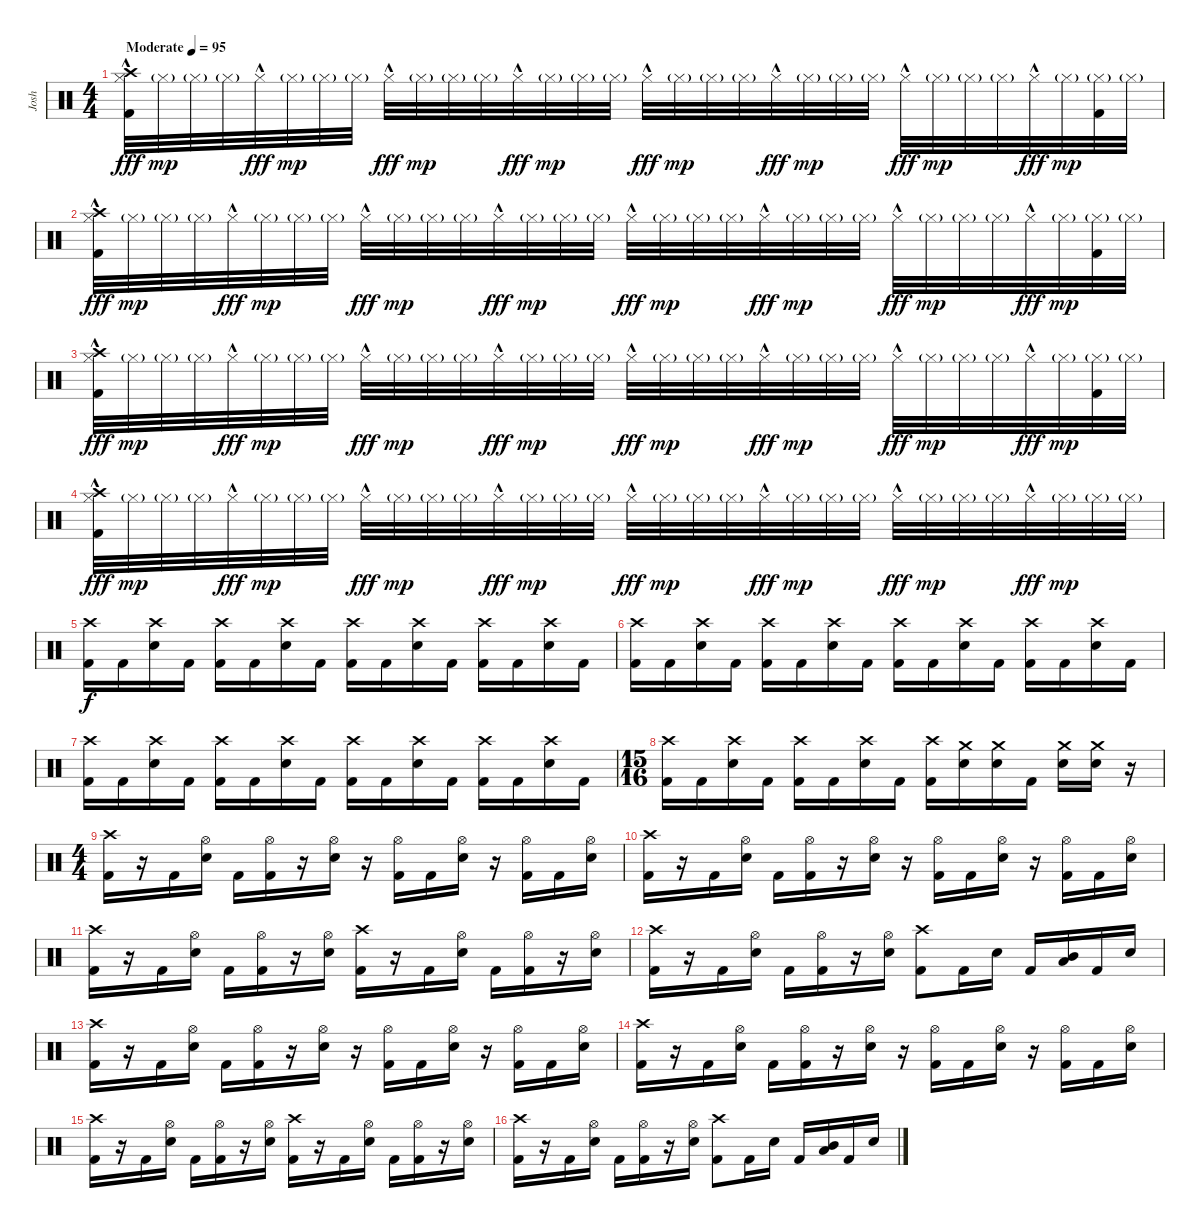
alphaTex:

\track ("Josh" "Josh") {instrument percussion}
\staff {score}
\articulation defaults
\ts (4 4)
\tempo (95 "Moderate")
\clef neutral
\ks c
("Crash high (hit)" "Hi-Hat (closed)"{hac} "Kick (hit) 2").32{dy fff} "Hi-Hat (closed)"{g}.32{dy mp} "Hi-Hat (closed)"{g}.32 "Hi-Hat (closed)"{g}.32 "Hi-Hat (closed)"{hac}.32{dy fff} "Hi-Hat (closed)"{g}.32{dy mp} "Hi-Hat (closed)"{g}.32 "Hi-Hat (closed)"{g}.32 "Hi-Hat (closed)"{hac}.32{dy fff} "Hi-Hat (closed)"{g}.32{dy mp} "Hi-Hat (closed)"{g}.32 "Hi-Hat (closed)"{g}.32 "Hi-Hat (closed)"{hac}.32{dy fff} "Hi-Hat (closed)"{g}.32{dy mp} "Hi-Hat (closed)"{g}.32 "Hi-Hat (closed)"{g}.32 "Hi-Hat (closed)"{hac}.32{dy fff} "Hi-Hat (closed)"{g}.32{dy mp} "Hi-Hat (closed)"{g}.32 "Hi-Hat (closed)"{g}.32 "Hi-Hat (closed)"{hac}.32{dy fff} "Hi-Hat (closed)"{g}.32{dy mp} "Hi-Hat (closed)"{g}.32 "Hi-Hat (closed)"{g}.32 "Hi-Hat (closed)"{hac}.32{dy fff} "Hi-Hat (closed)"{g}.32{dy mp} "Hi-Hat (closed)"{g}.32 "Hi-Hat (closed)"{g}.32 "Hi-Hat (closed)"{hac}.32{dy fff} "Hi-Hat (closed)"{g}.32{dy mp} ("Hi-Hat (closed)"{g} "Kick (hit) 2").32 "Hi-Hat (closed)"{g}.32 |
("Crash high (hit)" "Hi-Hat (closed)"{hac} "Kick (hit) 2").32{dy fff} "Hi-Hat (closed)"{g}.32{dy mp} "Hi-Hat (closed)"{g}.32 "Hi-Hat (closed)"{g}.32 "Hi-Hat (closed)"{hac}.32{dy fff} "Hi-Hat (closed)"{g}.32{dy mp} "Hi-Hat (closed)"{g}.32 "Hi-Hat (closed)"{g}.32 "Hi-Hat (closed)"{hac}.32{dy fff} "Hi-Hat (closed)"{g}.32{dy mp} "Hi-Hat (closed)"{g}.32 "Hi-Hat (closed)"{g}.32 "Hi-Hat (closed)"{hac}.32{dy fff} "Hi-Hat (closed)"{g}.32{dy mp} "Hi-Hat (closed)"{g}.32 "Hi-Hat (closed)"{g}.32 "Hi-Hat (closed)"{hac}.32{dy fff} "Hi-Hat (closed)"{g}.32{dy mp} "Hi-Hat (closed)"{g}.32 "Hi-Hat (closed)"{g}.32 "Hi-Hat (closed)"{hac}.32{dy fff} "Hi-Hat (closed)"{g}.32{dy mp} "Hi-Hat (closed)"{g}.32 "Hi-Hat (closed)"{g}.32 "Hi-Hat (closed)"{hac}.32{dy fff} "Hi-Hat (closed)"{g}.32{dy mp} "Hi-Hat (closed)"{g}.32 "Hi-Hat (closed)"{g}.32 "Hi-Hat (closed)"{hac}.32{dy fff} "Hi-Hat (closed)"{g}.32{dy mp} ("Hi-Hat (closed)"{g} "Kick (hit) 2").32 "Hi-Hat (closed)"{g}.32 |
("Hi-Hat (closed)"{hac} "Crash high (hit)" "Kick (hit) 2").32{dy fff} "Hi-Hat (closed)"{g}.32{dy mp} "Hi-Hat (closed)"{g}.32 "Hi-Hat (closed)"{g}.32 "Hi-Hat (closed)"{hac}.32{dy fff} "Hi-Hat (closed)"{g}.32{dy mp} "Hi-Hat (closed)"{g}.32 "Hi-Hat (closed)"{g}.32 "Hi-Hat (closed)"{hac}.32{dy fff} "Hi-Hat (closed)"{g}.32{dy mp} "Hi-Hat (closed)"{g}.32 "Hi-Hat (closed)"{g}.32 "Hi-Hat (closed)"{hac}.32{dy fff} "Hi-Hat (closed)"{g}.32{dy mp} "Hi-Hat (closed)"{g}.32 "Hi-Hat (closed)"{g}.32 "Hi-Hat (closed)"{hac}.32{dy fff} "Hi-Hat (closed)"{g}.32{dy mp} "Hi-Hat (closed)"{g}.32 "Hi-Hat (closed)"{g}.32 "Hi-Hat (closed)"{hac}.32{dy fff} "Hi-Hat (closed)"{g}.32{dy mp} "Hi-Hat (closed)"{g}.32 "Hi-Hat (closed)"{g}.32 "Hi-Hat (closed)"{hac}.32{dy fff} "Hi-Hat (closed)"{g}.32{dy mp} "Hi-Hat (closed)"{g}.32 "Hi-Hat (closed)"{g}.32 "Hi-Hat (closed)"{hac}.32{dy fff} "Hi-Hat (closed)"{g}.32{dy mp} ("Hi-Hat (closed)"{g} "Kick (hit) 2").32 "Hi-Hat (closed)"{g}.32 |
("Hi-Hat (closed)"{hac} "Crash high (hit)" "Kick (hit) 2").32{dy fff} "Hi-Hat (closed)"{g}.32{dy mp} "Hi-Hat (closed)"{g}.32 "Hi-Hat (closed)"{g}.32 "Hi-Hat (closed)"{hac}.32{dy fff} "Hi-Hat (closed)"{g}.32{dy mp} "Hi-Hat (closed)"{g}.32 "Hi-Hat (closed)"{g}.32 "Hi-Hat (closed)"{hac}.32{dy fff} "Hi-Hat (closed)"{g}.32{dy mp} "Hi-Hat (closed)"{g}.32 "Hi-Hat (closed)"{g}.32 "Hi-Hat (closed)"{hac}.32{dy fff} "Hi-Hat (closed)"{g}.32{dy mp} "Hi-Hat (closed)"{g}.32 "Hi-Hat (closed)"{g}.32 "Hi-Hat (closed)"{hac}.32{dy fff} "Hi-Hat (closed)"{g}.32{dy mp} "Hi-Hat (closed)"{g}.32 "Hi-Hat (closed)"{g}.32 "Hi-Hat (closed)"{hac}.32{dy fff} "Hi-Hat (closed)"{g}.32{dy mp} "Hi-Hat (closed)"{g}.32 "Hi-Hat (closed)"{g}.32 "Hi-Hat (closed)"{hac}.32{dy fff} "Hi-Hat (closed)"{g}.32{dy mp} "Hi-Hat (closed)"{g}.32 "Hi-Hat (closed)"{g}.32 "Hi-Hat (closed)"{hac}.32{dy fff} "Hi-Hat (closed)"{g}.32{dy mp} "Hi-Hat (closed)"{g}.32 "Hi-Hat (closed)"{g}.32 |
("Crash high (hit)" "Kick (hit) 2").16{dy f} "Kick (hit) 2".16 ("Crash high (hit)" "Snare (hit) 2").16 "Kick (hit) 2".16 ("Crash high (hit)" "Kick (hit) 2").16 "Kick (hit) 2".16 ("Crash high (hit)" "Snare (hit) 2").16 "Kick (hit) 2".16 ("Crash high (hit)" "Kick (hit) 2").16 "Kick (hit) 2".16 ("Crash high (hit)" "Snare (hit) 2").16 "Kick (hit) 2".16 ("Crash high (hit)" "Kick (hit) 2").16 "Kick (hit) 2".16 ("Crash high (hit)" "Snare (hit) 2").16 "Kick (hit) 2".16 |
("Crash high (hit)" "Kick (hit) 2").16 "Kick (hit) 2".16 ("Crash high (hit)" "Snare (hit) 2").16 "Kick (hit) 2".16 ("Crash high (hit)" "Kick (hit) 2").16 "Kick (hit) 2".16 ("Crash high (hit)" "Snare (hit) 2").16 "Kick (hit) 2".16 ("Crash high (hit)" "Kick (hit) 2").16 "Kick (hit) 2".16 ("Crash high (hit)" "Snare (hit) 2").16 "Kick (hit) 2".16 ("Crash high (hit)" "Kick (hit) 2").16 "Kick (hit) 2".16 ("Crash high (hit)" "Snare (hit) 2").16 "Kick (hit) 2".16 |
("Crash high (hit)" "Kick (hit) 2").16 "Kick (hit) 2".16 ("Crash high (hit)" "Snare (hit) 2").16 "Kick (hit) 2".16 ("Crash high (hit)" "Kick (hit) 2").16 "Kick (hit) 2".16 ("Crash high (hit)" "Snare (hit) 2").16 "Kick (hit) 2".16 ("Crash high (hit)" "Kick (hit) 2").16 "Kick (hit) 2".16 ("Crash high (hit)" "Snare (hit) 2").16 "Kick (hit) 2".16 ("Crash high (hit)" "Kick (hit) 2").16 "Kick (hit) 2".16 ("Crash high (hit)" "Snare (hit) 2").16 "Kick (hit) 2".16 |
\ts (15 16)
("Crash high (hit)" "Kick (hit) 2").16 "Kick (hit) 2".16 ("Crash high (hit)" "Snare (hit) 2").16 "Kick (hit) 2".16 ("Crash high (hit)" "Kick (hit) 2").16 "Kick (hit) 2".16 ("Crash high (hit)" "Snare (hit) 2").16 "Kick (hit) 2".16 ("Crash high (hit)" "Kick (hit) 2").16 ("Crash medium (hit)" "Snare (hit) 2").16 ("Crash medium (hit)" "Snare (hit) 2").16 "Kick (hit) 2".16 ("Crash medium (hit)" "Snare (hit) 2").16 ("Crash medium (hit)" "Snare (hit) 2").16 r.16 |
\ts (4 4)
("Crash high (hit)" "Kick (hit) 2").16 r.16 "Kick (hit) 2".16 ("Hi-Hat (open)" "Snare (hit) 2").16 "Kick (hit) 2".16 ("Hi-Hat (open)" "Kick (hit) 2").16 r.16 ("Hi-Hat (open)" "Snare (hit) 2").16 r.16 ("Hi-Hat (open)" "Kick (hit) 2").16 "Kick (hit) 2".16 ("Hi-Hat (open)" "Snare (hit) 2").16 r.16 ("Hi-Hat (open)" "Kick (hit) 2").16 "Kick (hit) 2".16 ("Hi-Hat (open)" "Snare (hit) 2").16 |
("Crash high (hit)" "Kick (hit) 2").16 r.16 "Kick (hit) 2".16 ("Hi-Hat (open)" "Snare (hit) 2").16 "Kick (hit) 2".16 ("Hi-Hat (open)" "Kick (hit) 2").16 r.16 ("Hi-Hat (open)" "Snare (hit) 2").16 r.16 ("Hi-Hat (open)" "Kick (hit) 2").16 "Kick (hit) 2".16 ("Hi-Hat (open)" "Snare (hit) 2").16 r.16 ("Hi-Hat (open)" "Kick (hit) 2").16 "Kick (hit) 2".16 ("Hi-Hat (open)" "Snare (hit) 2").16 |
("Crash high (hit)" "Kick (hit) 2").16 r.16 "Kick (hit) 2".16 ("Hi-Hat (open)" "Snare (hit) 2").16 "Kick (hit) 2".16 ("Hi-Hat (open)" "Kick (hit) 2").16 r.16 ("Hi-Hat (open)" "Snare (hit) 2").16 ("Crash high (hit)" "Kick (hit) 2").16 r.16 "Kick (hit) 2".16 ("Hi-Hat (open)" "Snare (hit) 2").16 "Kick (hit) 2".16 ("Hi-Hat (open)" "Kick (hit) 2").16 r.16 ("Hi-Hat (open)" "Snare (hit) 2").16 |
("Crash high (hit)" "Kick (hit) 2").16 r.16 "Kick (hit) 2".16 ("Hi-Hat (open)" "Snare (hit) 2").16 "Kick (hit) 2".16 ("Hi-Hat (open)" "Kick (hit) 2").16 r.16 ("Hi-Hat (open)" "Snare (hit) 2").16 ("Crash high (hit)" "Kick (hit) 2").8 "Kick (hit) 2".16 "Snare (hit) 2".16 "Kick (hit) 2".16 ("Mid Tom (hit)" "Low Tom (hit)").16 "Kick (hit) 2".16 "Snare (hit) 2".16 |
("Crash high (hit)" "Kick (hit) 2").16 r.16 "Kick (hit) 2".16 ("Hi-Hat (open)" "Snare (hit) 2").16 "Kick (hit) 2".16 ("Hi-Hat (open)" "Kick (hit) 2").16 r.16 ("Hi-Hat (open)" "Snare (hit) 2").16 r.16 ("Hi-Hat (open)" "Kick (hit) 2").16 "Kick (hit) 2".16 ("Hi-Hat (open)" "Snare (hit) 2").16 r.16 ("Hi-Hat (open)" "Kick (hit) 2").16 "Kick (hit) 2".16 ("Hi-Hat (open)" "Snare (hit) 2").16 |
("Crash high (hit)" "Kick (hit) 2").16 r.16 "Kick (hit) 2".16 ("Hi-Hat (open)" "Snare (hit) 2").16 "Kick (hit) 2".16 ("Hi-Hat (open)" "Kick (hit) 2").16 r.16 ("Hi-Hat (open)" "Snare (hit) 2").16 r.16 ("Hi-Hat (open)" "Kick (hit) 2").16 "Kick (hit) 2".16 ("Hi-Hat (open)" "Snare (hit) 2").16 r.16 ("Hi-Hat (open)" "Kick (hit) 2").16 "Kick (hit) 2".16 ("Hi-Hat (open)" "Snare (hit) 2").16 |
("Crash high (hit)" "Kick (hit) 2").16 r.16 "Kick (hit) 2".16 ("Hi-Hat (open)" "Snare (hit) 2").16 "Kick (hit) 2".16 ("Hi-Hat (open)" "Kick (hit) 2").16 r.16 ("Hi-Hat (open)" "Snare (hit) 2").16 ("Crash high (hit)" "Kick (hit) 2").16 r.16 "Kick (hit) 2".16 ("Hi-Hat (open)" "Snare (hit) 2").16 "Kick (hit) 2".16 ("Hi-Hat (open)" "Kick (hit) 2").16 r.16 ("Hi-Hat (open)" "Snare (hit) 2").16 |
("Crash high (hit)" "Kick (hit) 2").16 r.16 "Kick (hit) 2".16 ("Hi-Hat (open)" "Snare (hit) 2").16 "Kick (hit) 2".16 ("Hi-Hat (open)" "Kick (hit) 2").16 r.16 ("Hi-Hat (open)" "Snare (hit) 2").16 ("Crash high (hit)" "Kick (hit) 2").8 "Kick (hit) 2".16 "Snare (hit) 2".16 "Kick (hit) 2".16 ("Mid Tom (hit)" "Low Tom (hit)").16 "Kick (hit) 2".16 "Snare (hit) 2".16
